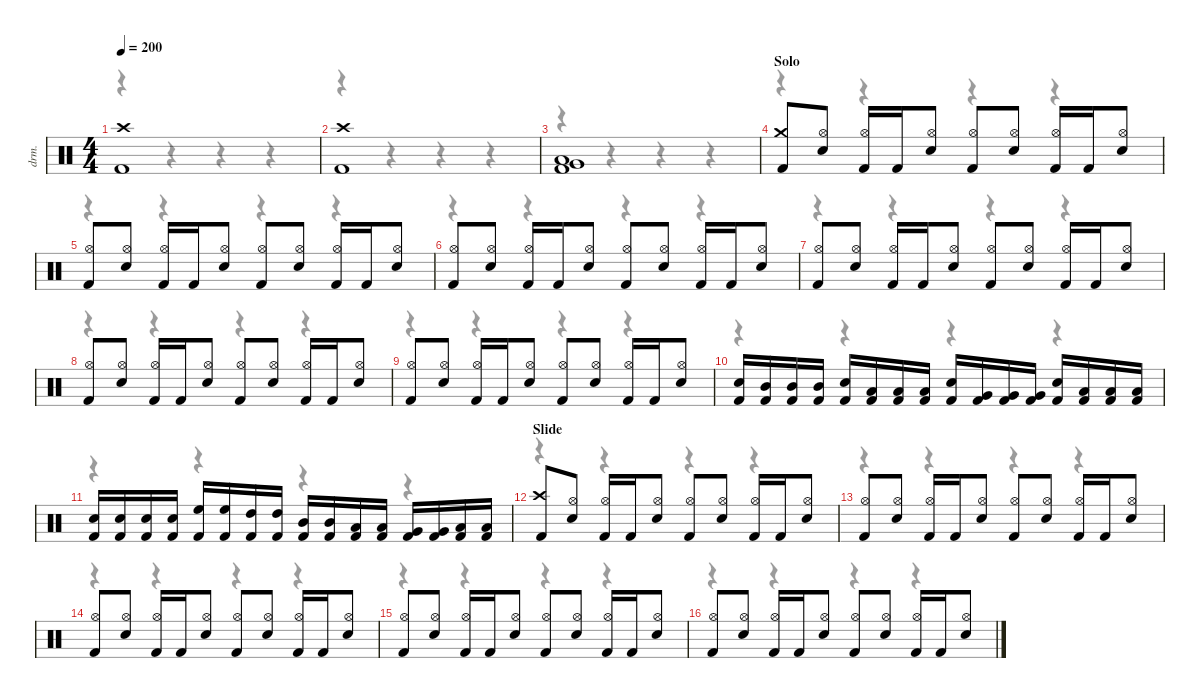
\hideDynamics
\bracketExtendMode nobrackets
\otherSystemsTrackNameOrientation horizontal
\track ("Drums" "drm.") {instrument percussion}
\staff {score}
\articulation defaults
\voice
\ts (4 4)
\scale
0.982788
\tempo 200
\accidentals auto
\clef neutral
\ottava regular
\simile none
\ks c
("Kick (hit) 2" "Crash high (hit)").1{dy f} |
\scale
0.982788 ("Kick (hit) 2" "Crash high (hit)").1 |
\scale
1.09391 ("Kick (hit) 2" "Very Low Tom (hit)" "Low Floor Tom (hit)").1 |
\section ("" "Solo")
\scale
0.978277 ("Kick (hit) 2" "Crash medium (hit)").8 ("Snare (hit) 2" "Hi-Hat (open)").8 ("Kick (hit) 2" "Hi-Hat (open)").16 "Kick (hit) 2".16 ("Snare (hit) 2" "Hi-Hat (open)").8 ("Kick (hit) 2" "Hi-Hat (open)").8 ("Snare (hit) 2" "Hi-Hat (open)").8 ("Kick (hit) 2" "Hi-Hat (open)").16 "Kick (hit) 2".16 ("Snare (hit) 2" "Hi-Hat (open)").8 |
\scale
0.992988 ("Kick (hit) 2" "Hi-Hat (open)").8 ("Snare (hit) 2" "Hi-Hat (open)").8 ("Kick (hit) 2" "Hi-Hat (open)").16 "Kick (hit) 2".16 ("Snare (hit) 2" "Hi-Hat (open)").8 ("Kick (hit) 2" "Hi-Hat (open)").8 ("Snare (hit) 2" "Hi-Hat (open)").8 ("Kick (hit) 2" "Hi-Hat (open)").16 "Kick (hit) 2".16 ("Snare (hit) 2" "Hi-Hat (open)").8 |
\scale
0.978277 ("Kick (hit) 2" "Hi-Hat (open)").8 ("Snare (hit) 2" "Hi-Hat (open)").8 ("Kick (hit) 2" "Hi-Hat (open)").16 "Kick (hit) 2".16 ("Snare (hit) 2" "Hi-Hat (open)").8 ("Kick (hit) 2" "Hi-Hat (open)").8 ("Snare (hit) 2" "Hi-Hat (open)").8 ("Kick (hit) 2" "Hi-Hat (open)").16 "Kick (hit) 2".16 ("Snare (hit) 2" "Hi-Hat (open)").8 |
\scale
0.978277 ("Kick (hit) 2" "Hi-Hat (open)").8 ("Snare (hit) 2" "Hi-Hat (open)").8 ("Kick (hit) 2" "Hi-Hat (open)").16 "Kick (hit) 2".16 ("Snare (hit) 2" "Hi-Hat (open)").8 ("Kick (hit) 2" "Hi-Hat (open)").8 ("Snare (hit) 2" "Hi-Hat (open)").8 ("Kick (hit) 2" "Hi-Hat (open)").16 "Kick (hit) 2".16 ("Snare (hit) 2" "Hi-Hat (open)").8 |
\scale
0.978277 ("Kick (hit) 2" "Hi-Hat (open)").8 ("Snare (hit) 2" "Hi-Hat (open)").8 ("Kick (hit) 2" "Hi-Hat (open)").16 "Kick (hit) 2".16 ("Snare (hit) 2" "Hi-Hat (open)").8 ("Kick (hit) 2" "Hi-Hat (open)").8 ("Snare (hit) 2" "Hi-Hat (open)").8 ("Kick (hit) 2" "Hi-Hat (open)").16 "Kick (hit) 2".16 ("Snare (hit) 2" "Hi-Hat (open)").8 |
\scale
1.07665 ("Kick (hit) 2" "Hi-Hat (open)").8 ("Snare (hit) 2" "Hi-Hat (open)").8 ("Kick (hit) 2" "Hi-Hat (open)").16 "Kick (hit) 2".16 ("Snare (hit) 2" "Hi-Hat (open)").8 ("Kick (hit) 2" "Hi-Hat (open)").8 ("Snare (hit) 2" "Hi-Hat (open)").8 ("Kick (hit) 2" "Hi-Hat (open)").16 "Kick (hit) 2".16 ("Snare (hit) 2" "Hi-Hat (open)").8 |
\scale
0.988084 ("Kick (hit) 2" "Snare (hit) 2").16 ("Kick (hit) 2" "Mid Tom (hit)").16 ("Kick (hit) 2" "Mid Tom (hit)").16 ("Kick (hit) 2" "Mid Tom (hit)").16 ("Kick (hit) 2" "Snare (hit) 2").16 ("Kick (hit) 2" "Low Tom (hit)").16 ("Kick (hit) 2" "Low Tom (hit)").16 ("Kick (hit) 2" "Low Tom (hit)").16 ("Kick (hit) 2" "Snare (hit) 2").16 ("Kick (hit) 2" "Very Low Tom (hit)").16 ("Kick (hit) 2" "Very Low Tom (hit)").16 ("Kick (hit) 2" "Very Low Tom (hit)").16 ("Kick (hit) 2" "Snare (hit) 2").16 ("Kick (hit) 2" "Low Floor Tom (hit)").16 ("Kick (hit) 2" "Low Floor Tom (hit)").16 ("Kick (hit) 2" "Low Floor Tom (hit)").16 |
\scale
0.98573 ("Kick (hit) 2" "Snare (hit) 2").16 ("Kick (hit) 2" "Snare (hit) 2").16 ("Kick (hit) 2" "Snare (hit) 2").16 ("Kick (hit) 2" "Snare (hit) 2").16 ("Kick (hit) 2" "High Floor Tom (hit)").16 ("Kick (hit) 2" "High Floor Tom (hit)").16 ("Kick (hit) 2" "High Tom (hit)").16 ("Kick (hit) 2" "High Tom (hit)").16 ("Kick (hit) 2" "Mid Tom (hit)").16 ("Kick (hit) 2" "Mid Tom (hit)").16 ("Kick (hit) 2" "Low Tom (hit)").16 ("Kick (hit) 2" "Low Tom (hit)").16 ("Kick (hit) 2" "Very Low Tom (hit)").16 ("Kick (hit) 2" "Very Low Tom (hit)").16 ("Kick (hit) 2" "Low Floor Tom (hit)").16 ("Kick (hit) 2" "Low Floor Tom (hit)").16 |
\section ("" "Slide")
\scale
0.988084 ("Kick (hit) 2" "Crash high (hit)").8 ("Snare (hit) 2" "Hi-Hat (open)").8 ("Kick (hit) 2" "Hi-Hat (open)").16 "Kick (hit) 2".16 ("Snare (hit) 2" "Hi-Hat (open)").8 ("Kick (hit) 2" "Hi-Hat (open)").8 ("Snare (hit) 2" "Hi-Hat (open)").8 ("Kick (hit) 2" "Hi-Hat (open)").16 "Kick (hit) 2".16 ("Snare (hit) 2" "Hi-Hat (open)").8 |
\scale
0.988084 ("Kick (hit) 2" "Hi-Hat (open)").8 ("Snare (hit) 2" "Hi-Hat (open)").8 ("Kick (hit) 2" "Hi-Hat (open)").16 "Kick (hit) 2".16 ("Snare (hit) 2" "Hi-Hat (open)").8 ("Kick (hit) 2" "Hi-Hat (open)").8 ("Snare (hit) 2" "Hi-Hat (open)").8 ("Kick (hit) 2" "Hi-Hat (open)").16 "Kick (hit) 2".16 ("Snare (hit) 2" "Hi-Hat (open)").8 |
\scale
0.973373 ("Kick (hit) 2" "Hi-Hat (open)").8 ("Snare (hit) 2" "Hi-Hat (open)").8 ("Kick (hit) 2" "Hi-Hat (open)").16 "Kick (hit) 2".16 ("Snare (hit) 2" "Hi-Hat (open)").8 ("Kick (hit) 2" "Hi-Hat (open)").8 ("Snare (hit) 2" "Hi-Hat (open)").8 ("Kick (hit) 2" "Hi-Hat (open)").16 "Kick (hit) 2".16 ("Snare (hit) 2" "Hi-Hat (open)").8 |
\scale
1.04918 ("Kick (hit) 2" "Hi-Hat (open)").8 ("Snare (hit) 2" "Hi-Hat (open)").8 ("Kick (hit) 2" "Hi-Hat (open)").16 "Kick (hit) 2".16 ("Snare (hit) 2" "Hi-Hat (open)").8 ("Kick (hit) 2" "Hi-Hat (open)").8 ("Snare (hit) 2" "Hi-Hat (open)").8 ("Kick (hit) 2" "Hi-Hat (open)").16 "Kick (hit) 2".16 ("Snare (hit) 2" "Hi-Hat (open)").8 |
\scale
0.980336 ("Kick (hit) 2" "Hi-Hat (open)").8 ("Snare (hit) 2" "Hi-Hat (open)").8 ("Kick (hit) 2" "Hi-Hat (open)").16 "Kick (hit) 2".16 ("Snare (hit) 2" "Hi-Hat (open)").8 ("Kick (hit) 2" "Hi-Hat (open)").8 ("Snare (hit) 2" "Hi-Hat (open)").8 ("Kick (hit) 2" "Hi-Hat (open)").16 "Kick (hit) 2".16 ("Snare (hit) 2" "Hi-Hat (open)").8
\voice
\clef neutral
\ottava regular
\simile none
\ks c
r.4{dy mf} r.4 r.4 r.4 |
r.4 r.4 r.4 r.4 |
r.4 r.4 r.4 r.4 |
r.4 r.4 r.4 r.4 |
r.4 r.4 r.4 r.4 |
r.4 r.4 r.4 r.4 |
r.4 r.4 r.4 r.4 |
r.4 r.4 r.4 r.4 |
r.4 r.4 r.4 r.4 |
r.4 r.4 r.4 r.4 |
r.4 r.4 r.4 r.4 |
r.4 r.4 r.4 r.4 |
r.4 r.4 r.4 r.4 |
r.4 r.4 r.4 r.4 |
r.4 r.4 r.4 r.4 |
r.4 r.4 r.4 r.4
